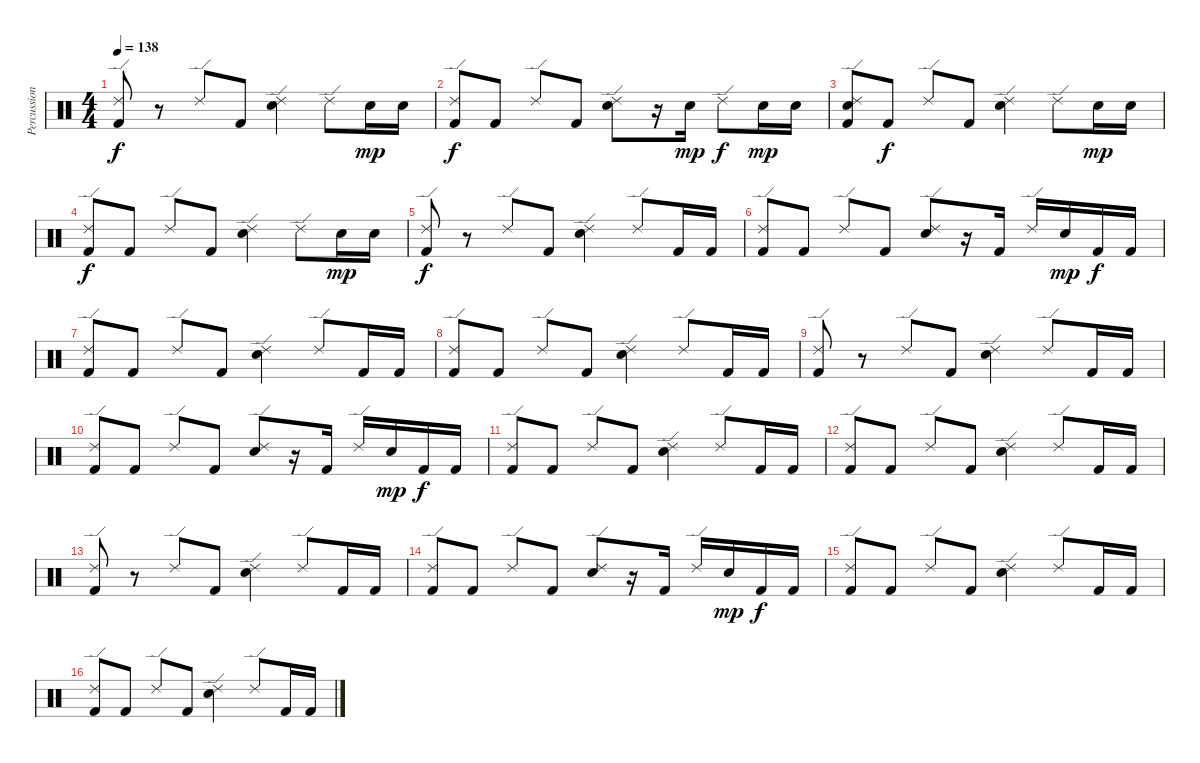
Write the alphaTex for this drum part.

\track ("Percussion" "Percussion") {instrument percussion}
\staff {score}
\articulation defaults
\ts (4 4)
\tempo 138
\clef neutral
\ks c
("Ride (edge) 2" "Kick (hit) 2").8{dy f} r.8 "Ride (edge) 2".8 "Kick (hit) 2".8 ("Ride (edge) 2" "Electric Snare (hit)").4 "Ride (edge) 2".8 "Electric Snare (hit)".16{dy mp} "Electric Snare (hit)".16 |
("Ride (edge) 2" "Kick (hit) 2").8{dy f} "Kick (hit) 2".8 "Ride (edge) 2".8 "Kick (hit) 2".8 ("Ride (edge) 2" "Electric Snare (hit)").8 r.16 "Electric Snare (hit)".16{dy mp} "Ride (edge) 2".8{dy f} "Electric Snare (hit)".16{dy mp} "Electric Snare (hit)".16 |
("Ride (edge) 2" "Electric Snare (hit)" "Kick (hit) 2").8 "Kick (hit) 2".8{dy f} "Ride (edge) 2".8 "Kick (hit) 2".8 ("Ride (edge) 2" "Electric Snare (hit)").4 "Ride (edge) 2".8 "Electric Snare (hit)".16{dy mp} "Electric Snare (hit)".16 |
("Ride (edge) 2" "Kick (hit) 2").8{dy f} "Kick (hit) 2".8 "Ride (edge) 2".8 "Kick (hit) 2".8 ("Ride (edge) 2" "Electric Snare (hit)").4 "Ride (edge) 2".8 "Electric Snare (hit)".16{dy mp} "Electric Snare (hit)".16 |
("Ride (edge) 2" "Kick (hit) 2").8{dy f} r.8 "Ride (edge) 2".8 "Kick (hit) 2".8 ("Ride (edge) 2" "Electric Snare (hit)").4 "Ride (edge) 2".8 "Kick (hit) 2".16 "Kick (hit) 2".16 |
("Ride (edge) 2" "Kick (hit) 2").8 "Kick (hit) 2".8 "Ride (edge) 2".8 "Kick (hit) 2".8 ("Ride (edge) 2" "Electric Snare (hit)").8 r.16 "Kick (hit) 2".16 "Ride (edge) 2".16 "Electric Snare (hit)".16{dy mp} "Kick (hit) 2".16{dy f} "Kick (hit) 2".16 |
("Ride (edge) 2" "Kick (hit) 2").8 "Kick (hit) 2".8 "Ride (edge) 2".8 "Kick (hit) 2".8 ("Ride (edge) 2" "Electric Snare (hit)").4 "Ride (edge) 2".8 "Kick (hit) 2".16 "Kick (hit) 2".16 |
("Ride (edge) 2" "Kick (hit) 2").8 "Kick (hit) 2".8 "Ride (edge) 2".8 "Kick (hit) 2".8 ("Ride (edge) 2" "Electric Snare (hit)").4 "Ride (edge) 2".8 "Kick (hit) 2".16 "Kick (hit) 2".16 |
("Ride (edge) 2" "Kick (hit) 2").8 r.8 "Ride (edge) 2".8 "Kick (hit) 2".8 ("Ride (edge) 2" "Electric Snare (hit)").4 "Ride (edge) 2".8 "Kick (hit) 2".16 "Kick (hit) 2".16 |
("Ride (edge) 2" "Kick (hit) 2").8 "Kick (hit) 2".8 "Ride (edge) 2".8 "Kick (hit) 2".8 ("Ride (edge) 2" "Electric Snare (hit)").8 r.16 "Kick (hit) 2".16 "Ride (edge) 2".16 "Electric Snare (hit)".16{dy mp} "Kick (hit) 2".16{dy f} "Kick (hit) 2".16 |
("Ride (edge) 2" "Kick (hit) 2").8 "Kick (hit) 2".8 "Ride (edge) 2".8 "Kick (hit) 2".8 ("Ride (edge) 2" "Electric Snare (hit)").4 "Ride (edge) 2".8 "Kick (hit) 2".16 "Kick (hit) 2".16 |
("Ride (edge) 2" "Kick (hit) 2").8 "Kick (hit) 2".8 "Ride (edge) 2".8 "Kick (hit) 2".8 ("Ride (edge) 2" "Electric Snare (hit)").4 "Ride (edge) 2".8 "Kick (hit) 2".16 "Kick (hit) 2".16 |
("Ride (edge) 2" "Kick (hit) 2").8 r.8 "Ride (edge) 2".8 "Kick (hit) 2".8 ("Ride (edge) 2" "Electric Snare (hit)").4 "Ride (edge) 2".8 "Kick (hit) 2".16 "Kick (hit) 2".16 |
("Ride (edge) 2" "Kick (hit) 2").8 "Kick (hit) 2".8 "Ride (edge) 2".8 "Kick (hit) 2".8 ("Ride (edge) 2" "Electric Snare (hit)").8 r.16 "Kick (hit) 2".16 "Ride (edge) 2".16 "Electric Snare (hit)".16{dy mp} "Kick (hit) 2".16{dy f} "Kick (hit) 2".16 |
("Ride (edge) 2" "Kick (hit) 2").8 "Kick (hit) 2".8 "Ride (edge) 2".8 "Kick (hit) 2".8 ("Ride (edge) 2" "Electric Snare (hit)").4 "Ride (edge) 2".8 "Kick (hit) 2".16 "Kick (hit) 2".16 |
("Ride (edge) 2" "Kick (hit) 2").8 "Kick (hit) 2".8 "Ride (edge) 2".8 "Kick (hit) 2".8 ("Ride (edge) 2" "Electric Snare (hit)").4 "Ride (edge) 2".8 "Kick (hit) 2".16 "Kick (hit) 2".16
